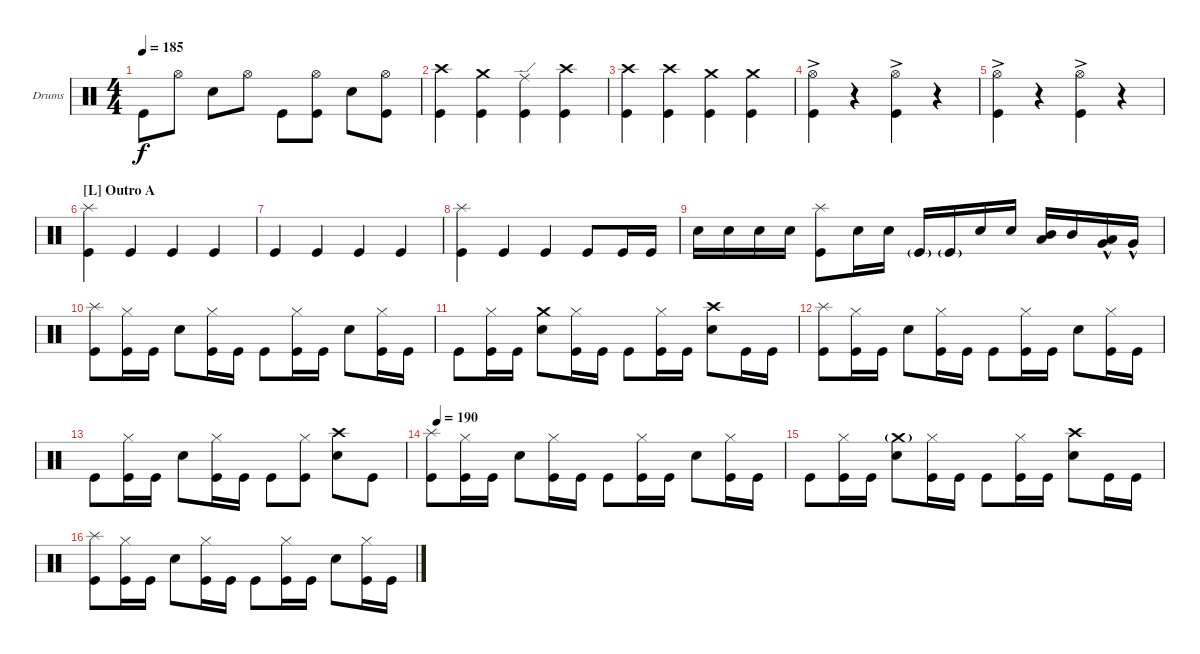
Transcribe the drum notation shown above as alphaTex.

\defaultSystemsLayout 4
\bracketExtendMode groupsimilarinstruments
\firstSystemTrackNameOrientation horizontal
\otherSystemsTrackNameOrientation horizontal
\track ("Drumkit" "Drums") {instrument percussion}
\staff {score}
\articulation defaults
\ts (4 4)
\tempo 185
\clef neutral
\ks c "Kick (hit)".8{dy f} "Hi-Hat (open)".8 "Snare (hit) 2".8 "Hi-Hat (open)".8 "Kick (hit)".8
("Kick (hit)" "Hi-Hat (open)").8 "Snare (hit) 2".8 ("Kick (hit)" "Hi-Hat (open)").8 |
("Kick (hit)" "Crash high (hit)").4 ("Kick (hit)" "Crash medium (hit)").4 ("Kick (hit)" "Ride (edge)").4 ("Kick (hit)" "Crash high (hit)").4 |
("Kick (hit)" "Crash high (hit)").4 ("Kick (hit)" "Crash high (hit)").4 ("Kick (hit)" "Crash medium (hit)").4 ("Kick (hit)" "Crash medium (hit)").4 |
("Kick (hit)" "Hi-Hat (open)"{ac}).4 r.4 ("Kick (hit)" "Hi-Hat (open)"{ac}).4 r.4 |
("Kick (hit)" "Hi-Hat (open)"{ac}).4 r.4 ("Kick (hit)" "Hi-Hat (open)"{ac}).4 r.4 |
\section ("L" "Outro A")
("Kick (hit)" "Splash (hit)").4 "Kick (hit)".4 "Kick (hit)".4 "Kick (hit)".4 |
"Kick (hit)".4 "Kick (hit)".4 "Kick (hit)".4 "Kick (hit)".4 |
("Kick (hit)" "Splash (hit)").4 "Kick (hit)".4 "Kick (hit)".4 "Kick (hit)".8 "Kick (hit)".16 "Kick (hit)".16 |
"Snare (hit) 2".16 "Snare (hit) 2".16 "Snare (hit) 2".16 "Snare (hit) 2".16 ("Kick (hit)" "Splash (hit)").8 "Snare (hit) 2".16 "Snare (hit) 2".16 "Kick (hit)"{g}.16 "Kick (hit)"{g}.16 "Snare (hit) 2".16 "Snare (hit) 2".16 ("Mid Tom (hit)" "Low Tom (hit)").16 "Mid Tom (hit)".16 ("Low Tom (hit)"{hac} "Very Low Tom (hit)"{hac}).16 "Very Low Tom (hit)"{hac}.16 |
("Splash (hit)" "Kick (hit)").8 ("Kick (hit)" "Hi-Hat (closed)").16 "Kick (hit)".16 "Snare (hit) 2".8 ("Kick (hit)" "Hi-Hat (closed)").16 "Kick (hit)".16 "Kick (hit)".8 ("Kick (hit)" "Hi-Hat (closed)").16 "Kick (hit)".16 "Snare (hit) 2".8 ("Kick (hit)" "Hi-Hat (closed)").16 "Kick (hit)".16 |
"Kick (hit)".8 ("Kick (hit)" "Hi-Hat (closed)").16 "Kick (hit)".16 ("Snare (hit) 2" "Crash medium (hit)").8 ("Kick (hit)" "Hi-Hat (closed)").16 "Kick (hit)".16 "Kick (hit)".8 ("Kick (hit)" "Hi-Hat (closed)").16 "Kick (hit)".16 ("Snare (hit) 2" "Crash high (hit)").8 "Kick (hit)".16 "Kick (hit)".16 |
("Splash (hit)" "Kick (hit)").8 ("Kick (hit)" "Hi-Hat (closed)").16 "Kick (hit)".16 "Snare (hit) 2".8 ("Kick (hit)" "Hi-Hat (closed)").16 "Kick (hit)".16 "Kick (hit)".8 ("Kick (hit)" "Hi-Hat (closed)").16 "Kick (hit)".16 "Snare (hit) 2".8 ("Kick (hit)" "Hi-Hat (closed)").16 "Kick (hit)".16 |
"Kick (hit)".8 ("Kick (hit)" "Hi-Hat (closed)").16 "Kick (hit)".16 "Snare (hit) 2".8 ("Kick (hit)" "Hi-Hat (closed)").16 "Kick (hit)".16 "Kick (hit)".8 ("Kick (hit)" "Hi-Hat (closed)").8 ("Snare (hit) 2" "Crash high (hit)").8 "Kick (hit)".8 |
\tempo (190 0.01875)
("Splash (hit)" "Kick (hit)").8 ("Kick (hit)" "Hi-Hat (closed)").16 "Kick (hit)".16 "Snare (hit) 2".8 ("Kick (hit)" "Hi-Hat (closed)").16 "Kick (hit)".16 "Kick (hit)".8 ("Kick (hit)" "Hi-Hat (closed)").16 "Kick (hit)".16 "Snare (hit) 2".8 ("Kick (hit)" "Hi-Hat (closed)").16 "Kick (hit)".16 |
"Kick (hit)".8 ("Kick (hit)" "Hi-Hat (closed)").16 "Kick (hit)".16 ("Snare (hit) 2" "Crash medium (hit)"{g}).8 ("Kick (hit)" "Hi-Hat (closed)").16 "Kick (hit)".16 "Kick (hit)".8 ("Kick (hit)" "Hi-Hat (closed)").16 "Kick (hit)".16 ("Snare (hit) 2" "Crash high (hit)").8 "Kick (hit)".16 "Kick (hit)".16 |
("Splash (hit)" "Kick (hit)").8 ("Kick (hit)" "Hi-Hat (closed)").16 "Kick (hit)".16 "Snare (hit) 2".8 ("Kick (hit)" "Hi-Hat (closed)").16 "Kick (hit)".16 "Kick (hit)".8 ("Kick (hit)" "Hi-Hat (closed)").16 "Kick (hit)".16 "Snare (hit) 2".8 ("Kick (hit)" "Hi-Hat (closed)").16 "Kick (hit)".16
